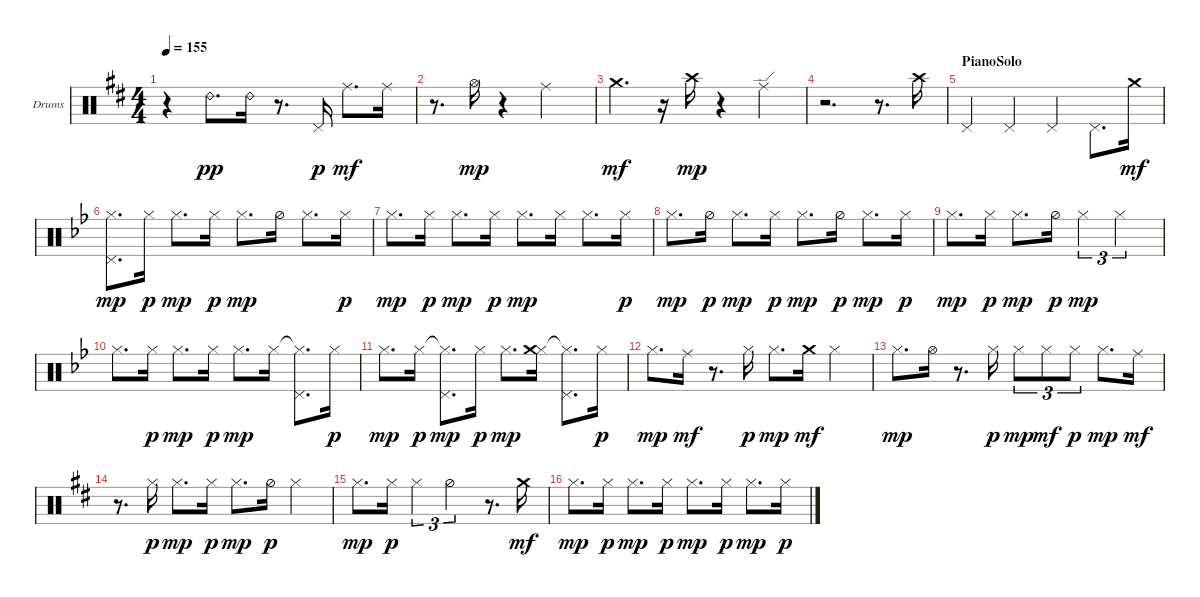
\bracketExtendMode groupsimilarinstruments
\firstSystemTrackNameOrientation horizontal
\otherSystemsTrackNameOrientation horizontal
\track ("Perc" "Drums") {instrument percussion}
\staff {score}
\articulation defaults
\ts (4 4)
\tempo 155
\clef neutral
\ks d
r.4{dy mp} "Ride (bell) 2".8{d dy pp} "Ride (bell) 2".16 r.8{d} "Pedal Hi-Hat (hit)".16{dy p} "Ride (middle)".8{d dy mf} "Ride (middle)".16 |
r.8{d} "Hi-Hat (open)".16{dy mp} r.4 "Ride (middle)".2 |
"Crash medium (hit)".4{d dy mf} r.16 "Crash high (hit)".16{dy mp} r.4 "Ride (edge)".4 |
r.2{d} r.8{d} "Crash high (hit)".16 |
\section ("" "PianoSolo")
"Pedal Hi-Hat (hit)".4 "Pedal Hi-Hat (hit)".4 "Pedal Hi-Hat (hit)".4 "Pedal Hi-Hat (hit)".8{d} "Crash medium (hit)".16{dy mf} |
\ks bb
("Hi-Hat (closed)" "Pedal Hi-Hat (hit)").8{d dy mp} "Hi-Hat (closed)".16{dy p} "Hi-Hat (closed)".8{d dy mp} "Hi-Hat (closed)".16{dy p} "Hi-Hat (closed)".8{d dy mp} "Hi-Hat (half)".16 "Hi-Hat (closed)".8{d} "Hi-Hat (closed)".16{dy p} |
"Hi-Hat (closed)".8{d dy mp} "Hi-Hat (closed)".16{dy p} "Hi-Hat (closed)".8{d dy mp} "Hi-Hat (closed)".16{dy p} "Hi-Hat (closed)".8{d dy mp} "Hi-Hat (closed)".16 "Hi-Hat (closed)".8{d} "Hi-Hat (closed)".16{dy p} |
"Hi-Hat (closed)".8{d dy mp} "Hi-Hat (half)".16{dy p} "Hi-Hat (closed)".8{d dy mp} "Hi-Hat (closed)".16{dy p} "Hi-Hat (closed)".8{d dy mp} "Hi-Hat (half)".16{dy p} "Hi-Hat (closed)".8{d dy mp} "Hi-Hat (closed)".16{dy p} |
"Hi-Hat (closed)".8{d dy mp} "Hi-Hat (closed)".16{dy p} "Hi-Hat (closed)".8{d dy mp} "Hi-Hat (half)".16{dy p} "Hi-Hat (closed)".4{tu (3 2) dy mp} "Hi-Hat (closed)".2{tu (3 2)} |
"Hi-Hat (closed)".8{d} "Hi-Hat (closed)".16{dy p} "Hi-Hat (closed)".8{d dy mp} "Hi-Hat (closed)".16{dy p} "Hi-Hat (closed)".8{d dy mp} "Hi-Hat (closed)".16 ("Hi-Hat (closed)"{t} "Pedal Hi-Hat (hit)").8{d} "Hi-Hat (closed)".16{dy p} |
"Hi-Hat (closed)".8{d dy mp} "Hi-Hat (closed)".16{dy p} ("Hi-Hat (closed)"{t} "Pedal Hi-Hat (hit)").8{d dy mp} "Hi-Hat (closed)".16{dy p} "Hi-Hat (closed)".8{d dy mp} ("Hi-Hat (closed)" "Crash medium (hit)").16 ("Hi-Hat (closed)"{t} "Pedal Hi-Hat (hit)").8{d} "Hi-Hat (closed)".16{dy p} |
"Hi-Hat (closed)".8{d dy mp} "Ride (middle)".16{dy mf} r.8{d} "Hi-Hat (closed)".16{dy p} "Hi-Hat (closed)".8{d dy mp} "Crash medium (hit)".16{dy mf} "Hi-Hat (closed)".4 |
"Hi-Hat (closed)".8{d dy mp} "Hi-Hat (open)".16 r.8{d} "Hi-Hat (closed)".16{dy p} "Hi-Hat (closed)".8{tu (3 2) dy mp} "Hi-Hat (closed)".8{tu (3 2) dy mf} "Hi-Hat (closed)".8{tu (3 2) dy p} "Hi-Hat (closed)".8{d dy mp} "Ride (middle)".16{dy mf} |
\ks d
r.8{d} "Hi-Hat (closed)".16{dy p} "Hi-Hat (closed)".8{d dy mp} "Hi-Hat (closed)".16{dy p} "Hi-Hat (closed)".8{d dy mp} "Hi-Hat (half)".16{dy p} "Hi-Hat (closed)".4 |
"Hi-Hat (closed)".8{d dy mp} "Hi-Hat (closed)".16{dy p} "Hi-Hat (closed)".4{tu (3 2)} "Hi-Hat (half)".2{tu (3 2)} r.8{d} "Crash medium (hit)".16{dy mf} |
"Hi-Hat (closed)".8{d dy mp} "Hi-Hat (closed)".16{dy p} "Hi-Hat (closed)".8{d dy mp} "Hi-Hat (closed)".16{dy p} "Hi-Hat (closed)".8{d dy mp} "Hi-Hat (closed)".16{dy p} "Hi-Hat (closed)".8{d dy mp} "Hi-Hat (closed)".16{dy p}
